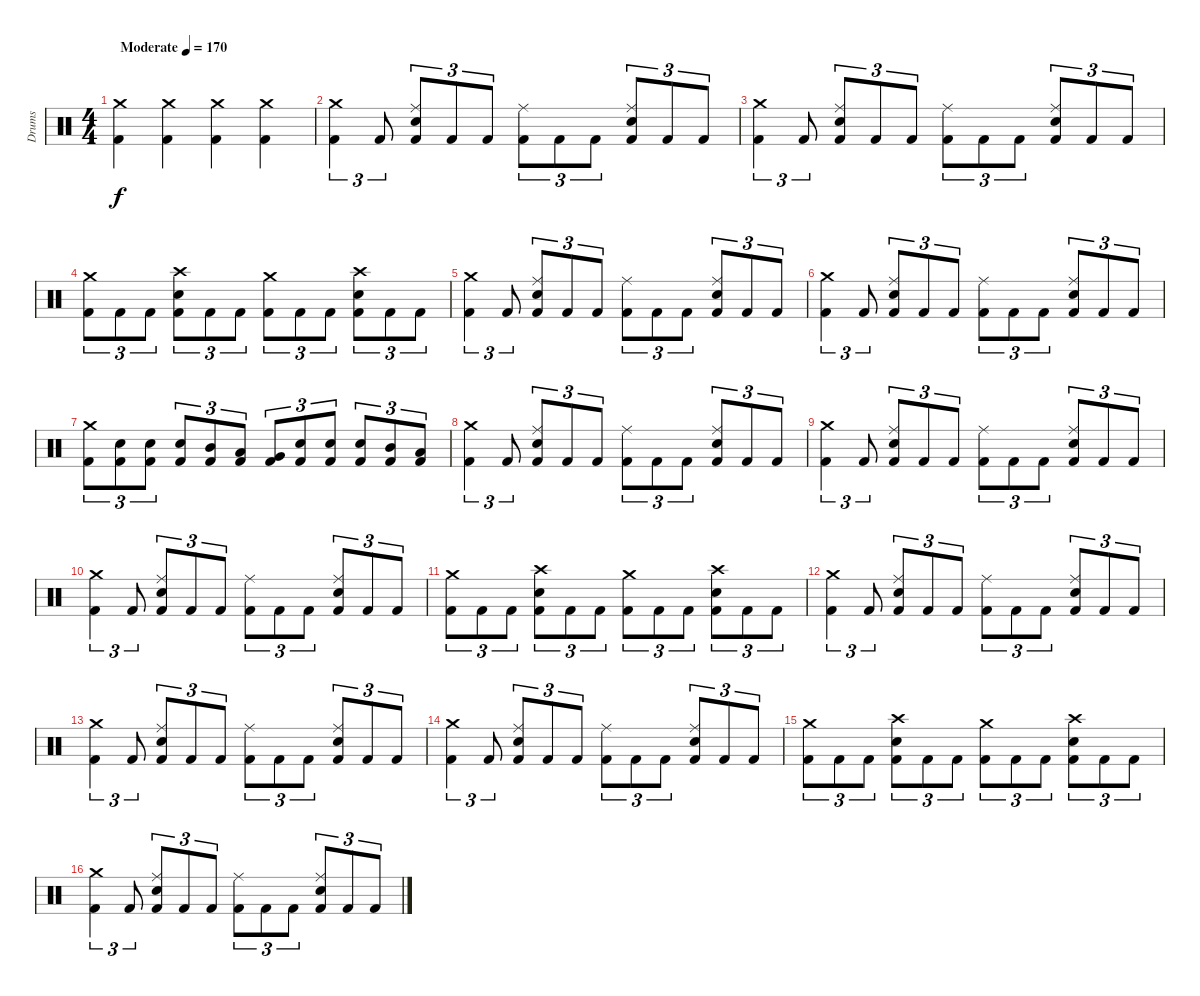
\track ("Drums" "Drums") {instrument percussion}
\staff {score}
\articulation defaults
\ts (4 4)
\tempo (170 "Moderate")
\clef neutral
\ks c
("Crash medium (hit)" "Kick (hit) 2").4{dy f} ("Crash medium (hit)" "Kick (hit) 2").4 ("Crash medium (hit)" "Kick (hit) 2").4 ("Crash medium (hit)" "Kick (hit) 2").4 |
("Crash medium (hit)" "Kick (hit) 2").4{tu (3 2)} "Kick (hit) 2".8{tu (3 2)} ("Ride (middle)" "Snare (hit) 2" "Kick (hit) 2").8{tu (3 2)} "Kick (hit) 2".8{tu (3 2)} "Kick (hit) 2".8{tu (3 2)} ("Ride (middle)" "Kick (hit) 2").8{tu (3 2)} "Kick (hit) 2".8{tu (3 2)} "Kick (hit) 2".8{tu (3 2)} ("Ride (middle)" "Snare (hit) 2" "Kick (hit) 2").8{tu (3 2)} "Kick (hit) 2".8{tu (3 2)} "Kick (hit) 2".8{tu (3 2)} |
("Crash medium (hit)" "Kick (hit) 2").4{tu (3 2)} "Kick (hit) 2".8{tu (3 2)} ("Ride (middle)" "Snare (hit) 2" "Kick (hit) 2").8{tu (3 2)} "Kick (hit) 2".8{tu (3 2)} "Kick (hit) 2".8{tu (3 2)} ("Ride (middle)" "Kick (hit) 2").8{tu (3 2)} "Kick (hit) 2".8{tu (3 2)} "Kick (hit) 2".8{tu (3 2)} ("Ride (middle)" "Snare (hit) 2" "Kick (hit) 2").8{tu (3 2)} "Kick (hit) 2".8{tu (3 2)} "Kick (hit) 2".8{tu (3 2)} |
("Crash medium (hit)" "Kick (hit) 2").8{tu (3 2)} "Kick (hit) 2".8{tu (3 2)} "Kick (hit) 2".8{tu (3 2)} ("Crash high (hit)" "Snare (hit) 2" "Kick (hit) 2").8{tu (3 2)} "Kick (hit) 2".8{tu (3 2)} "Kick (hit) 2".8{tu (3 2)} ("Crash medium (hit)" "Kick (hit) 2").8{tu (3 2)} "Kick (hit) 2".8{tu (3 2)} "Kick (hit) 2".8{tu (3 2)} ("Crash high (hit)" "Snare (hit) 2" "Kick (hit) 2").8{tu (3 2)} "Kick (hit) 2".8{tu (3 2)} "Kick (hit) 2".8{tu (3 2)} |
("Crash medium (hit)" "Kick (hit) 2").4{tu (3 2)} "Kick (hit) 2".8{tu (3 2)} ("Ride (middle)" "Snare (hit) 2" "Kick (hit) 2").8{tu (3 2)} "Kick (hit) 2".8{tu (3 2)} "Kick (hit) 2".8{tu (3 2)} ("Ride (middle)" "Kick (hit) 2").8{tu (3 2)} "Kick (hit) 2".8{tu (3 2)} "Kick (hit) 2".8{tu (3 2)} ("Ride (middle)" "Snare (hit) 2" "Kick (hit) 2").8{tu (3 2)} "Kick (hit) 2".8{tu (3 2)} "Kick (hit) 2".8{tu (3 2)} |
("Crash medium (hit)" "Kick (hit) 2").4{tu (3 2)} "Kick (hit) 2".8{tu (3 2)} ("Ride (middle)" "Snare (hit) 2" "Kick (hit) 2").8{tu (3 2)} "Kick (hit) 2".8{tu (3 2)} "Kick (hit) 2".8{tu (3 2)} ("Ride (middle)" "Kick (hit) 2").8{tu (3 2)} "Kick (hit) 2".8{tu (3 2)} "Kick (hit) 2".8{tu (3 2)} ("Ride (middle)" "Snare (hit) 2" "Kick (hit) 2").8{tu (3 2)} "Kick (hit) 2".8{tu (3 2)} "Kick (hit) 2".8{tu (3 2)} |
("Crash medium (hit)" "Kick (hit) 2").8{tu (3 2)} ("Kick (hit) 2" "Snare (hit) 2").8{tu (3 2)} ("Kick (hit) 2" "Snare (hit) 2").8{tu (3 2)} ("Kick (hit) 2" "Snare (hit) 2").8{tu (3 2)} ("Mid Tom (hit)" "Kick (hit) 2").8{tu (3 2)} ("Low Tom (hit)" "Kick (hit) 2").8{tu (3 2)} ("Very Low Tom (hit)" "Kick (hit) 2").8{tu (3 2)} ("Snare (hit) 2" "Kick (hit) 2").8{tu (3 2)} ("Snare (hit) 2" "Kick (hit) 2").8{tu (3 2)} ("Snare (hit) 2" "Kick (hit) 2").8{tu (3 2)} ("Mid Tom (hit)" "Kick (hit) 2").8{tu (3 2)} ("Low Tom (hit)" "Kick (hit) 2").8{tu (3 2)} |
("Crash medium (hit)" "Kick (hit) 2").4{tu (3 2)} "Kick (hit) 2".8{tu (3 2)} ("Ride (middle)" "Snare (hit) 2" "Kick (hit) 2").8{tu (3 2)} "Kick (hit) 2".8{tu (3 2)} "Kick (hit) 2".8{tu (3 2)} ("Ride (middle)" "Kick (hit) 2").8{tu (3 2)} "Kick (hit) 2".8{tu (3 2)} "Kick (hit) 2".8{tu (3 2)} ("Ride (middle)" "Snare (hit) 2" "Kick (hit) 2").8{tu (3 2)} "Kick (hit) 2".8{tu (3 2)} "Kick (hit) 2".8{tu (3 2)} |
("Crash medium (hit)" "Kick (hit) 2").4{tu (3 2)} "Kick (hit) 2".8{tu (3 2)} ("Ride (middle)" "Snare (hit) 2" "Kick (hit) 2").8{tu (3 2)} "Kick (hit) 2".8{tu (3 2)} "Kick (hit) 2".8{tu (3 2)} ("Ride (middle)" "Kick (hit) 2").8{tu (3 2)} "Kick (hit) 2".8{tu (3 2)} "Kick (hit) 2".8{tu (3 2)} ("Ride (middle)" "Snare (hit) 2" "Kick (hit) 2").8{tu (3 2)} "Kick (hit) 2".8{tu (3 2)} "Kick (hit) 2".8{tu (3 2)} |
("Crash medium (hit)" "Kick (hit) 2").4{tu (3 2)} "Kick (hit) 2".8{tu (3 2)} ("Ride (middle)" "Snare (hit) 2" "Kick (hit) 2").8{tu (3 2)} "Kick (hit) 2".8{tu (3 2)} "Kick (hit) 2".8{tu (3 2)} ("Ride (middle)" "Kick (hit) 2").8{tu (3 2)} "Kick (hit) 2".8{tu (3 2)} "Kick (hit) 2".8{tu (3 2)} ("Ride (middle)" "Snare (hit) 2" "Kick (hit) 2").8{tu (3 2)} "Kick (hit) 2".8{tu (3 2)} "Kick (hit) 2".8{tu (3 2)} |
("Crash medium (hit)" "Kick (hit) 2").8{tu (3 2)} "Kick (hit) 2".8{tu (3 2)} "Kick (hit) 2".8{tu (3 2)} ("Crash high (hit)" "Snare (hit) 2" "Kick (hit) 2").8{tu (3 2)} "Kick (hit) 2".8{tu (3 2)} "Kick (hit) 2".8{tu (3 2)} ("Crash medium (hit)" "Kick (hit) 2").8{tu (3 2)} "Kick (hit) 2".8{tu (3 2)} "Kick (hit) 2".8{tu (3 2)} ("Crash high (hit)" "Snare (hit) 2" "Kick (hit) 2").8{tu (3 2)} "Kick (hit) 2".8{tu (3 2)} "Kick (hit) 2".8{tu (3 2)} |
("Crash medium (hit)" "Kick (hit) 2").4{tu (3 2)} "Kick (hit) 2".8{tu (3 2)} ("Ride (middle)" "Snare (hit) 2" "Kick (hit) 2").8{tu (3 2)} "Kick (hit) 2".8{tu (3 2)} "Kick (hit) 2".8{tu (3 2)} ("Ride (middle)" "Kick (hit) 2").8{tu (3 2)} "Kick (hit) 2".8{tu (3 2)} "Kick (hit) 2".8{tu (3 2)} ("Ride (middle)" "Snare (hit) 2" "Kick (hit) 2").8{tu (3 2)} "Kick (hit) 2".8{tu (3 2)} "Kick (hit) 2".8{tu (3 2)} |
("Crash medium (hit)" "Kick (hit) 2").4{tu (3 2)} "Kick (hit) 2".8{tu (3 2)} ("Ride (middle)" "Snare (hit) 2" "Kick (hit) 2").8{tu (3 2)} "Kick (hit) 2".8{tu (3 2)} "Kick (hit) 2".8{tu (3 2)} ("Ride (middle)" "Kick (hit) 2").8{tu (3 2)} "Kick (hit) 2".8{tu (3 2)} "Kick (hit) 2".8{tu (3 2)} ("Ride (middle)" "Snare (hit) 2" "Kick (hit) 2").8{tu (3 2)} "Kick (hit) 2".8{tu (3 2)} "Kick (hit) 2".8{tu (3 2)} |
("Crash medium (hit)" "Kick (hit) 2").4{tu (3 2)} "Kick (hit) 2".8{tu (3 2)} ("Ride (middle)" "Snare (hit) 2" "Kick (hit) 2").8{tu (3 2)} "Kick (hit) 2".8{tu (3 2)} "Kick (hit) 2".8{tu (3 2)} ("Ride (middle)" "Kick (hit) 2").8{tu (3 2)} "Kick (hit) 2".8{tu (3 2)} "Kick (hit) 2".8{tu (3 2)} ("Ride (middle)" "Snare (hit) 2" "Kick (hit) 2").8{tu (3 2)} "Kick (hit) 2".8{tu (3 2)} "Kick (hit) 2".8{tu (3 2)} |
("Crash medium (hit)" "Kick (hit) 2").8{tu (3 2)} "Kick (hit) 2".8{tu (3 2)} "Kick (hit) 2".8{tu (3 2)} ("Crash high (hit)" "Snare (hit) 2" "Kick (hit) 2").8{tu (3 2)} "Kick (hit) 2".8{tu (3 2)} "Kick (hit) 2".8{tu (3 2)} ("Crash medium (hit)" "Kick (hit) 2").8{tu (3 2)} "Kick (hit) 2".8{tu (3 2)} "Kick (hit) 2".8{tu (3 2)} ("Crash high (hit)" "Snare (hit) 2" "Kick (hit) 2").8{tu (3 2)} "Kick (hit) 2".8{tu (3 2)} "Kick (hit) 2".8{tu (3 2)} |
("Crash medium (hit)" "Kick (hit) 2").4{tu (3 2)} "Kick (hit) 2".8{tu (3 2)} ("Ride (middle)" "Snare (hit) 2" "Kick (hit) 2").8{tu (3 2)} "Kick (hit) 2".8{tu (3 2)} "Kick (hit) 2".8{tu (3 2)} ("Ride (middle)" "Kick (hit) 2").8{tu (3 2)} "Kick (hit) 2".8{tu (3 2)} "Kick (hit) 2".8{tu (3 2)} ("Ride (middle)" "Snare (hit) 2" "Kick (hit) 2").8{tu (3 2)} "Kick (hit) 2".8{tu (3 2)} "Kick (hit) 2".8{tu (3 2)}
